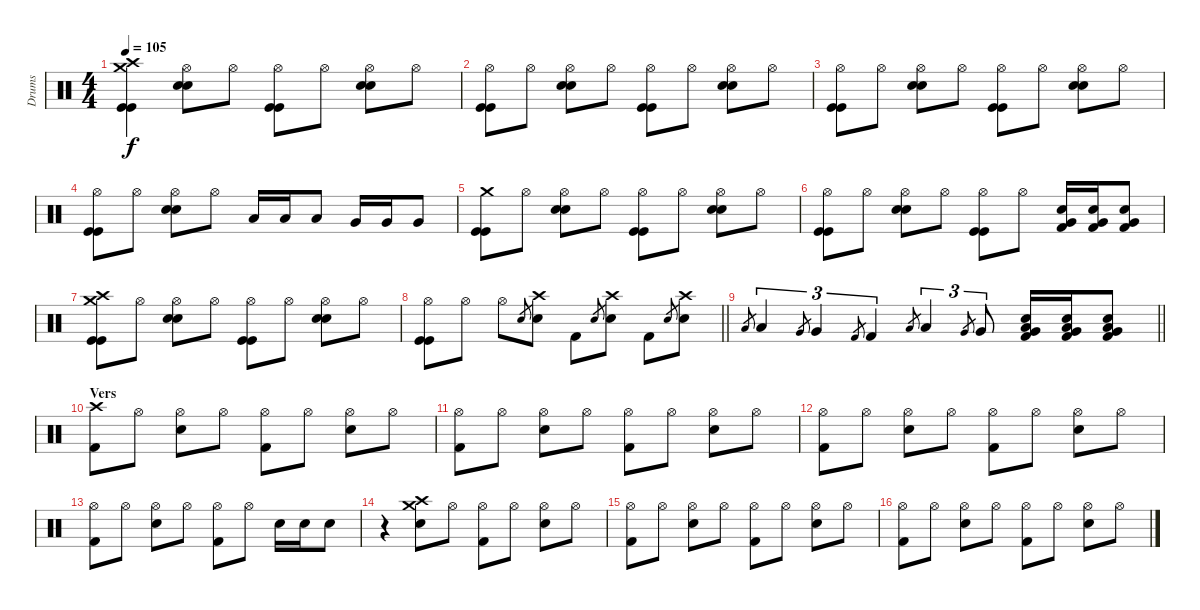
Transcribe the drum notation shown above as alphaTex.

\track ("Drums" "Drums") {instrument percussion}
\staff {score}
\articulation defaults
\ts (4 4)
\tempo 105
\clef neutral
\ks c
("Crash medium (hit)" "Crash high (hit)" "Kick (hit)" "Kick (hit)").4{dy f} ("Hi-Hat (open)" "Snare (hit) 2" "Snare (hit) 2").8 "Hi-Hat (open)".8 ("Hi-Hat (open)" "Kick (hit)" "Kick (hit)").8 "Hi-Hat (open)".8 ("Hi-Hat (open)" "Snare (hit) 2" "Snare (hit) 2").8 "Hi-Hat (open)".8 |
("Hi-Hat (open)" "Kick (hit)" "Kick (hit)").8 "Hi-Hat (open)".8 ("Hi-Hat (open)" "Snare (hit) 2" "Snare (hit) 2").8 "Hi-Hat (open)".8 ("Hi-Hat (open)" "Kick (hit)" "Kick (hit)").8 "Hi-Hat (open)".8 ("Hi-Hat (open)" "Snare (hit) 2" "Snare (hit) 2").8 "Hi-Hat (open)".8 |
("Hi-Hat (open)" "Kick (hit)" "Kick (hit)").8 "Hi-Hat (open)".8 ("Hi-Hat (open)" "Snare (hit) 2" "Snare (hit) 2").8 "Hi-Hat (open)".8 ("Hi-Hat (open)" "Kick (hit)" "Kick (hit)").8 "Hi-Hat (open)".8 ("Hi-Hat (open)" "Snare (hit) 2" "Snare (hit) 2").8 "Hi-Hat (open)".8 |
("Hi-Hat (open)" "Kick (hit)" "Kick (hit)").8 "Hi-Hat (open)".8 ("Hi-Hat (open)" "Snare (hit) 2" "Snare (hit) 2").8 "Hi-Hat (open)".8 "Low Tom (hit)".16 "Low Tom (hit)".16 "Low Tom (hit)".8 "Very Low Tom (hit)".16 "Very Low Tom (hit)".16 "Very Low Tom (hit)".8 |
("Crash medium (hit)" "Kick (hit)" "Kick (hit)").8 "Hi-Hat (open)".8 ("Hi-Hat (open)" "Snare (hit) 2" "Snare (hit) 2").8 "Hi-Hat (open)".8 ("Hi-Hat (open)" "Kick (hit)" "Kick (hit)").8 "Hi-Hat (open)".8 ("Hi-Hat (open)" "Snare (hit) 2" "Snare (hit) 2").8 "Hi-Hat (open)".8 |
("Hi-Hat (open)" "Kick (hit)" "Kick (hit)").8 "Hi-Hat (open)".8 ("Hi-Hat (open)" "Snare (hit) 2" "Snare (hit) 2").8 "Hi-Hat (open)".8 ("Hi-Hat (open)" "Kick (hit)" "Kick (hit)").8 "Hi-Hat (open)".8 ("Very Low Tom (hit)" "Snare (hit) 2" "Kick (hit) 2").16 ("Very Low Tom (hit)" "Snare (hit) 2" "Kick (hit) 2").16 ("Very Low Tom (hit)" "Snare (hit) 2" "Kick (hit) 2").8 |
("Crash medium (hit)" "Crash high (hit)" "Kick (hit)" "Kick (hit)").8 "Hi-Hat (open)".8 ("Hi-Hat (open)" "Snare (hit) 2" "Snare (hit) 2").8 "Hi-Hat (open)".8 ("Hi-Hat (open)" "Kick (hit)" "Kick (hit)").8 "Hi-Hat (open)".8 ("Hi-Hat (open)" "Snare (hit) 2" "Snare (hit) 2").8 "Hi-Hat (open)".8 |
\barLineRight lightlight
("Hi-Hat (open)" "Kick (hit)" "Kick (hit)").8 "Hi-Hat (open)".8 "Hi-Hat (open)".8 "Snare (hit) 2".8{gr} ("Crash high (hit)" "Snare (hit) 2").8 "Kick (hit) 2".8 "Snare (hit) 2".8{gr} ("Crash high (hit)" "Snare (hit) 2").8 "Kick (hit) 2".8 "Snare (hit) 2".8{gr} ("Crash high (hit)" "Snare (hit) 2").8 |
\barLineRight lightlight "Low Tom (hit)".8{gr} "Low Tom (hit)".4{tu (3 2)} "Very Low Tom (hit)".8{gr} "Very Low Tom (hit)".4{tu (3 2)} "Kick (hit) 2".8{gr} "Kick (hit) 2".4{tu (3 2)} "Low Tom (hit)".8{gr} "Low Tom (hit)".4{tu (3 2)} "Very Low Tom (hit)".8{gr} "Very Low Tom (hit)".8{tu (3 2)}
("Snare (hit) 2" "Low Tom (hit)" "Very Low Tom (hit)" "Kick (hit) 2").16 ("Snare (hit) 2" "Low Tom (hit)" "Very Low Tom (hit)" "Kick (hit) 2").16 ("Snare (hit) 2" "Low Tom (hit)" "Very Low Tom (hit)" "Kick (hit) 2").8 |
\section ("" "Vers")
("Crash high (hit)" "Kick (hit) 2").8 "Hi-Hat (open)".8 ("Hi-Hat (open)" "Snare (hit) 2").8 "Hi-Hat (open)".8 ("Hi-Hat (open)" "Kick (hit) 2").8 "Hi-Hat (open)".8 ("Hi-Hat (open)" "Snare (hit) 2").8 "Hi-Hat (open)".8 |
("Hi-Hat (open)" "Kick (hit) 2").8 "Hi-Hat (open)".8 ("Hi-Hat (open)" "Snare (hit) 2").8 "Hi-Hat (open)".8 ("Hi-Hat (open)" "Kick (hit) 2").8 "Hi-Hat (open)".8 ("Hi-Hat (open)" "Snare (hit) 2").8 "Hi-Hat (open)".8 |
("Hi-Hat (open)" "Kick (hit) 2").8 "Hi-Hat (open)".8 ("Hi-Hat (open)" "Snare (hit) 2").8 "Hi-Hat (open)".8 ("Hi-Hat (open)" "Kick (hit) 2").8 "Hi-Hat (open)".8 ("Hi-Hat (open)" "Snare (hit) 2").8 "Hi-Hat (open)".8 |
("Hi-Hat (open)" "Kick (hit) 2").8 "Hi-Hat (open)".8 ("Hi-Hat (open)" "Snare (hit) 2").8 "Hi-Hat (open)".8 ("Hi-Hat (open)" "Kick (hit) 2").8 "Hi-Hat (open)".8 "Snare (hit) 2".16 "Snare (hit) 2".16 "Snare (hit) 2".8 |
r.4 ("Crash medium (hit)" "Crash high (hit)" "Snare (hit) 2").8 "Hi-Hat (open)".8 ("Hi-Hat (open)" "Kick (hit) 2").8 "Hi-Hat (open)".8 ("Hi-Hat (open)" "Snare (hit) 2").8 "Hi-Hat (open)".8 |
("Hi-Hat (open)" "Kick (hit) 2").8 "Hi-Hat (open)".8 ("Hi-Hat (open)" "Snare (hit) 2").8 "Hi-Hat (open)".8 ("Hi-Hat (open)" "Kick (hit) 2").8 "Hi-Hat (open)".8 ("Hi-Hat (open)" "Snare (hit) 2").8 "Hi-Hat (open)".8 |
("Hi-Hat (open)" "Kick (hit) 2").8 "Hi-Hat (open)".8 ("Hi-Hat (open)" "Snare (hit) 2").8 "Hi-Hat (open)".8 ("Hi-Hat (open)" "Kick (hit) 2").8 "Hi-Hat (open)".8 ("Hi-Hat (open)" "Snare (hit) 2").8 "Hi-Hat (open)".8
